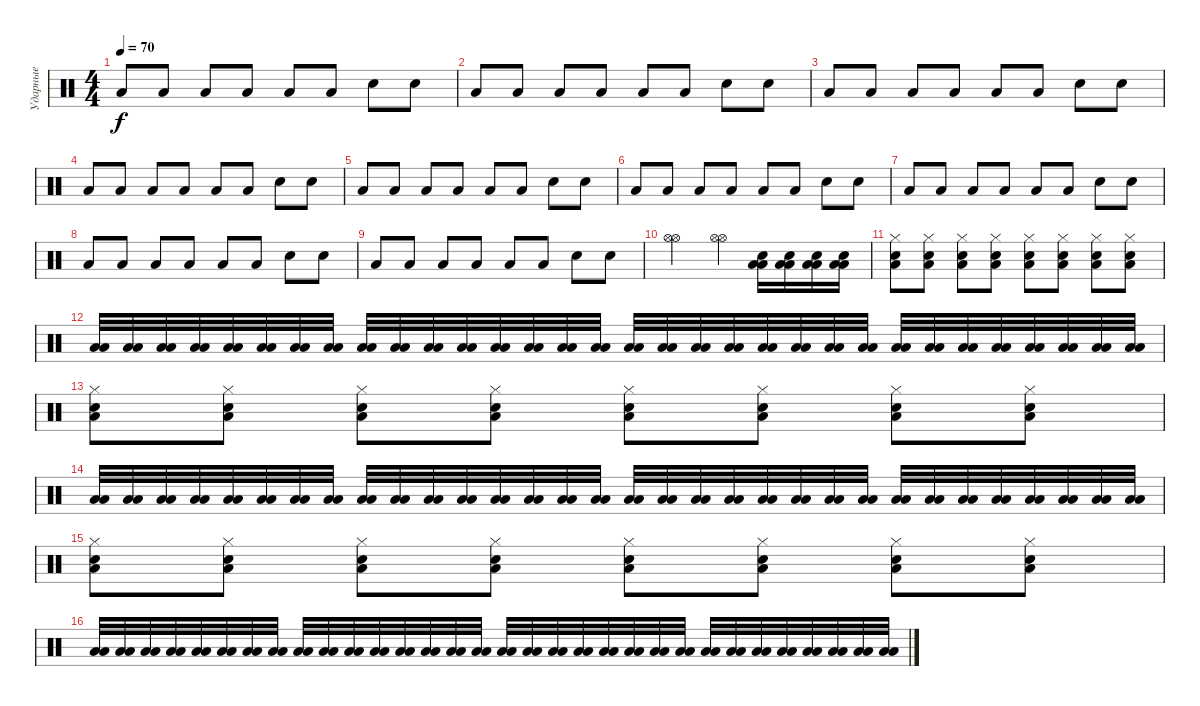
\track ("Ударные" "Ударные") {instrument percussion}
\staff {score}
\articulation defaults
\ts (4 4)
\tempo 70
\clef neutral
\ks c "Low Floor Tom (hit)".8{dy f} "Low Floor Tom (hit)".8 "Low Floor Tom (hit)".8 "Low Floor Tom (hit)".8 "Low Floor Tom (hit)".8 "Low Floor Tom (hit)".8 "Electric Snare (hit)".8 "Electric Snare (hit)".8
|
"Low Floor Tom (hit)".8 "Low Floor Tom (hit)".8 "Low Floor Tom (hit)".8 "Low Floor Tom (hit)".8 "Low Floor Tom (hit)".8 "Low Floor Tom (hit)".8 "Electric Snare (hit)".8 "Electric Snare (hit)".8 |
"Low Floor Tom (hit)".8 "Low Floor Tom (hit)".8 "Low Floor Tom (hit)".8 "Low Floor Tom (hit)".8 "Low Floor Tom (hit)".8 "Low Floor Tom (hit)".8 "Electric Snare (hit)".8 "Electric Snare (hit)".8 |
"Low Floor Tom (hit)".8 "Low Floor Tom (hit)".8 "Low Floor Tom (hit)".8 "Low Floor Tom (hit)".8 "Low Floor Tom (hit)".8 "Low Floor Tom (hit)".8 "Electric Snare (hit)".8 "Electric Snare (hit)".8 |
"Low Floor Tom (hit)".8 "Low Floor Tom (hit)".8 "Low Floor Tom (hit)".8 "Low Floor Tom (hit)".8 "Low Floor Tom (hit)".8 "Low Floor Tom (hit)".8 "Electric Snare (hit)".8 "Electric Snare (hit)".8 |
"Low Floor Tom (hit)".8 "Low Floor Tom (hit)".8 "Low Floor Tom (hit)".8 "Low Floor Tom (hit)".8 "Low Floor Tom (hit)".8 "Low Floor Tom (hit)".8 "Electric Snare (hit)".8 "Electric Snare (hit)".8 |
"Low Floor Tom (hit)".8 "Low Floor Tom (hit)".8 "Low Floor Tom (hit)".8 "Low Floor Tom (hit)".8 "Low Floor Tom (hit)".8 "Low Floor Tom (hit)".8 "Electric Snare (hit)".8 "Electric Snare (hit)".8 |
"Low Floor Tom (hit)".8 "Low Floor Tom (hit)".8 "Low Floor Tom (hit)".8 "Low Floor Tom (hit)".8 "Low Floor Tom (hit)".8 "Low Floor Tom (hit)".8 "Electric Snare (hit)".8 "Electric Snare (hit)".8 |
"Low Floor Tom (hit)".8 "Low Floor Tom (hit)".8 "Low Floor Tom (hit)".8 "Low Floor Tom (hit)".8 "Low Floor Tom (hit)".8 "Low Floor Tom (hit)".8 "Electric Snare (hit)".8 "Electric Snare (hit)".8 |
("Hi-Hat (open)" "Hi-Hat (open)").2 ("Hi-Hat (open)" "Hi-Hat (open)").4 ("Low Floor Tom (hit)" "Low Floor Tom (hit)" "Electric Snare (hit)").16 ("Low Floor Tom (hit)" "Low Floor Tom (hit)" "Electric Snare (hit)").16 ("Low Floor Tom (hit)" "Low Floor Tom (hit)" "Electric Snare (hit)").16 ("Low Floor Tom (hit)" "Low Floor Tom (hit)" "Electric Snare (hit)").16 |
("Electric Snare (hit)" "Hi-Hat (closed)" "Low Floor Tom (hit)").8 ("Electric Snare (hit)" "Hi-Hat (closed)" "Low Floor Tom (hit)").8 ("Electric Snare (hit)" "Hi-Hat (closed)" "Low Floor Tom (hit)").8 ("Electric Snare (hit)" "Hi-Hat (closed)" "Low Floor Tom (hit)").8 ("Electric Snare (hit)" "Hi-Hat (closed)" "Low Floor Tom (hit)").8 ("Electric Snare (hit)" "Hi-Hat (closed)" "Low Floor Tom (hit)").8 ("Electric Snare (hit)" "Hi-Hat (closed)" "Low Floor Tom (hit)").8 ("Electric Snare (hit)" "Hi-Hat (closed)" "Low Floor Tom (hit)").8 |
("Low Floor Tom (hit)" "Low Floor Tom (hit)").32 ("Low Floor Tom (hit)" "Low Floor Tom (hit)").32 ("Low Floor Tom (hit)" "Low Floor Tom (hit)").32 ("Low Floor Tom (hit)" "Low Floor Tom (hit)").32 ("Low Floor Tom (hit)" "Low Floor Tom (hit)").32 ("Low Floor Tom (hit)" "Low Floor Tom (hit)").32 ("Low Floor Tom (hit)" "Low Floor Tom (hit)").32 ("Low Floor Tom (hit)" "Low Floor Tom (hit)").32 ("Low Floor Tom (hit)" "Low Floor Tom (hit)").32 ("Low Floor Tom (hit)" "Low Floor Tom (hit)").32 ("Low Floor Tom (hit)" "Low Floor Tom (hit)").32 ("Low Floor Tom (hit)" "Low Floor Tom (hit)").32 ("Low Floor Tom (hit)" "Low Floor Tom (hit)").32 ("Low Floor Tom (hit)" "Low Floor Tom (hit)").32 ("Low Floor Tom (hit)" "Low Floor Tom (hit)").32 ("Low Floor Tom (hit)" "Low Floor Tom (hit)").32 ("Low Floor Tom (hit)" "Low Floor Tom (hit)").32 ("Low Floor Tom (hit)" "Low Floor Tom (hit)").32 ("Low Floor Tom (hit)" "Low Floor Tom (hit)").32 ("Low Floor Tom (hit)" "Low Floor Tom (hit)").32 ("Low Floor Tom (hit)" "Low Floor Tom (hit)").32 ("Low Floor Tom (hit)" "Low Floor Tom (hit)").32 ("Low Floor Tom (hit)" "Low Floor Tom (hit)").32 ("Low Floor Tom (hit)" "Low Floor Tom (hit)").32 ("Low Floor Tom (hit)" "Low Floor Tom (hit)").32 ("Low Floor Tom (hit)" "Low Floor Tom (hit)").32 ("Low Floor Tom (hit)" "Low Floor Tom (hit)").32 ("Low Floor Tom (hit)" "Low Floor Tom (hit)").32 ("Low Floor Tom (hit)" "Low Floor Tom (hit)").32 ("Low Floor Tom (hit)" "Low Floor Tom (hit)").32 ("Low Floor Tom (hit)" "Low Floor Tom (hit)").32 ("Low Floor Tom (hit)" "Low Floor Tom (hit)").32 |
("Electric Snare (hit)" "Hi-Hat (closed)" "Low Floor Tom (hit)").8 ("Electric Snare (hit)" "Hi-Hat (closed)" "Low Floor Tom (hit)").8 ("Electric Snare (hit)" "Hi-Hat (closed)" "Low Floor Tom (hit)").8 ("Electric Snare (hit)" "Hi-Hat (closed)" "Low Floor Tom (hit)").8 ("Electric Snare (hit)" "Hi-Hat (closed)" "Low Floor Tom (hit)").8 ("Electric Snare (hit)" "Hi-Hat (closed)" "Low Floor Tom (hit)").8 ("Electric Snare (hit)" "Hi-Hat (closed)" "Low Floor Tom (hit)").8 ("Electric Snare (hit)" "Hi-Hat (closed)" "Low Floor Tom (hit)").8 |
("Low Floor Tom (hit)" "Low Floor Tom (hit)").32 ("Low Floor Tom (hit)" "Low Floor Tom (hit)").32 ("Low Floor Tom (hit)" "Low Floor Tom (hit)").32 ("Low Floor Tom (hit)" "Low Floor Tom (hit)").32 ("Low Floor Tom (hit)" "Low Floor Tom (hit)").32 ("Low Floor Tom (hit)" "Low Floor Tom (hit)").32 ("Low Floor Tom (hit)" "Low Floor Tom (hit)").32 ("Low Floor Tom (hit)" "Low Floor Tom (hit)").32 ("Low Floor Tom (hit)" "Low Floor Tom (hit)").32 ("Low Floor Tom (hit)" "Low Floor Tom (hit)").32 ("Low Floor Tom (hit)" "Low Floor Tom (hit)").32 ("Low Floor Tom (hit)" "Low Floor Tom (hit)").32 ("Low Floor Tom (hit)" "Low Floor Tom (hit)").32 ("Low Floor Tom (hit)" "Low Floor Tom (hit)").32 ("Low Floor Tom (hit)" "Low Floor Tom (hit)").32 ("Low Floor Tom (hit)" "Low Floor Tom (hit)").32 ("Low Floor Tom (hit)" "Low Floor Tom (hit)").32 ("Low Floor Tom (hit)" "Low Floor Tom (hit)").32 ("Low Floor Tom (hit)" "Low Floor Tom (hit)").32 ("Low Floor Tom (hit)" "Low Floor Tom (hit)").32 ("Low Floor Tom (hit)" "Low Floor Tom (hit)").32 ("Low Floor Tom (hit)" "Low Floor Tom (hit)").32 ("Low Floor Tom (hit)" "Low Floor Tom (hit)").32 ("Low Floor Tom (hit)" "Low Floor Tom (hit)").32 ("Low Floor Tom (hit)" "Low Floor Tom (hit)").32 ("Low Floor Tom (hit)" "Low Floor Tom (hit)").32 ("Low Floor Tom (hit)" "Low Floor Tom (hit)").32 ("Low Floor Tom (hit)" "Low Floor Tom (hit)").32 ("Low Floor Tom (hit)" "Low Floor Tom (hit)").32 ("Low Floor Tom (hit)" "Low Floor Tom (hit)").32 ("Low Floor Tom (hit)" "Low Floor Tom (hit)").32 ("Low Floor Tom (hit)" "Low Floor Tom (hit)").32 |
("Electric Snare (hit)" "Hi-Hat (closed)" "Low Floor Tom (hit)").8 ("Electric Snare (hit)" "Hi-Hat (closed)" "Low Floor Tom (hit)").8 ("Electric Snare (hit)" "Hi-Hat (closed)" "Low Floor Tom (hit)").8 ("Electric Snare (hit)" "Hi-Hat (closed)" "Low Floor Tom (hit)").8 ("Electric Snare (hit)" "Hi-Hat (closed)" "Low Floor Tom (hit)").8 ("Electric Snare (hit)" "Hi-Hat (closed)" "Low Floor Tom (hit)").8 ("Electric Snare (hit)" "Hi-Hat (closed)" "Low Floor Tom (hit)").8 ("Electric Snare (hit)" "Hi-Hat (closed)" "Low Floor Tom (hit)").8 |
("Low Floor Tom (hit)" "Low Floor Tom (hit)").32 ("Low Floor Tom (hit)" "Low Floor Tom (hit)").32 ("Low Floor Tom (hit)" "Low Floor Tom (hit)").32 ("Low Floor Tom (hit)" "Low Floor Tom (hit)").32 ("Low Floor Tom (hit)" "Low Floor Tom (hit)").32 ("Low Floor Tom (hit)" "Low Floor Tom (hit)").32 ("Low Floor Tom (hit)" "Low Floor Tom (hit)").32 ("Low Floor Tom (hit)" "Low Floor Tom (hit)").32 ("Low Floor Tom (hit)" "Low Floor Tom (hit)").32 ("Low Floor Tom (hit)" "Low Floor Tom (hit)").32 ("Low Floor Tom (hit)" "Low Floor Tom (hit)").32 ("Low Floor Tom (hit)" "Low Floor Tom (hit)").32 ("Low Floor Tom (hit)" "Low Floor Tom (hit)").32 ("Low Floor Tom (hit)" "Low Floor Tom (hit)").32 ("Low Floor Tom (hit)" "Low Floor Tom (hit)").32 ("Low Floor Tom (hit)" "Low Floor Tom (hit)").32 ("Low Floor Tom (hit)" "Low Floor Tom (hit)").32 ("Low Floor Tom (hit)" "Low Floor Tom (hit)").32 ("Low Floor Tom (hit)" "Low Floor Tom (hit)").32 ("Low Floor Tom (hit)" "Low Floor Tom (hit)").32 ("Low Floor Tom (hit)" "Low Floor Tom (hit)").32 ("Low Floor Tom (hit)" "Low Floor Tom (hit)").32 ("Low Floor Tom (hit)" "Low Floor Tom (hit)").32 ("Low Floor Tom (hit)" "Low Floor Tom (hit)").32 ("Low Floor Tom (hit)" "Low Floor Tom (hit)").32 ("Low Floor Tom (hit)" "Low Floor Tom (hit)").32 ("Low Floor Tom (hit)" "Low Floor Tom (hit)").32 ("Low Floor Tom (hit)" "Low Floor Tom (hit)").32 ("Low Floor Tom (hit)" "Low Floor Tom (hit)").32 ("Low Floor Tom (hit)" "Low Floor Tom (hit)").32 ("Low Floor Tom (hit)" "Low Floor Tom (hit)").32 ("Low Floor Tom (hit)" "Low Floor Tom (hit)").32
